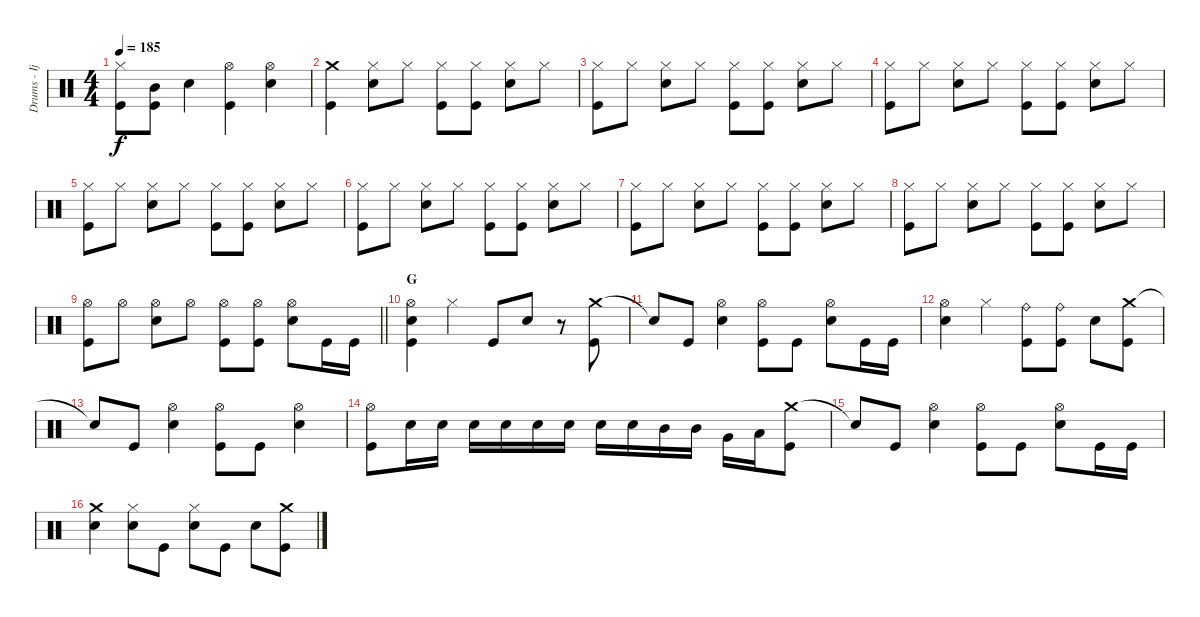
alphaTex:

\track ("Drums - Ijichi" "Drums - Ij") {instrument percussion}
\staff {score}
\articulation defaults
\ts (4 4)
\tempo 185
\clef neutral
\ks c
("Hi-Hat (closed)" "Kick (hit)").8{dy f} ("Mid Tom (hit)" "Kick (hit)").8 "Electric Snare (hit)".4 ("Hi-Hat (open)" "Kick (hit)").4 ("Hi-Hat (open)" "Electric Snare (hit)").4 |
("Crash medium (hit)" "Kick (hit)").4 ("Hi-Hat (closed)" "Electric Snare (hit)").8 "Hi-Hat (closed)".8 ("Hi-Hat (closed)" "Kick (hit)").8 ("Hi-Hat (closed)" "Kick (hit)").8 ("Hi-Hat (closed)" "Electric Snare (hit)").8 "Hi-Hat (closed)".8 |
("Hi-Hat (closed)" "Kick (hit)").8 "Hi-Hat (closed)".8 ("Hi-Hat (closed)" "Electric Snare (hit)").8 "Hi-Hat (closed)".8 ("Hi-Hat (closed)" "Kick (hit)").8 ("Hi-Hat (closed)" "Kick (hit)").8 ("Hi-Hat (closed)" "Electric Snare (hit)").8 "Hi-Hat (closed)".8 |
("Hi-Hat (closed)" "Kick (hit)").8 "Hi-Hat (closed)".8 ("Hi-Hat (closed)" "Electric Snare (hit)").8 "Hi-Hat (closed)".8 ("Hi-Hat (closed)" "Kick (hit)").8 ("Hi-Hat (closed)" "Kick (hit)").8 ("Hi-Hat (closed)" "Electric Snare (hit)").8 "Hi-Hat (closed)".8 |
("Hi-Hat (closed)" "Kick (hit)").8 "Hi-Hat (closed)".8 ("Hi-Hat (closed)" "Electric Snare (hit)").8 "Hi-Hat (closed)".8 ("Hi-Hat (closed)" "Kick (hit)").8 ("Hi-Hat (closed)" "Kick (hit)").8 ("Hi-Hat (closed)" "Electric Snare (hit)").8 "Hi-Hat (closed)".8 |
("Hi-Hat (closed)" "Kick (hit)").8 "Hi-Hat (closed)".8 ("Hi-Hat (closed)" "Electric Snare (hit)").8 "Hi-Hat (closed)".8 ("Hi-Hat (closed)" "Kick (hit)").8 ("Hi-Hat (closed)" "Kick (hit)").8 ("Hi-Hat (closed)" "Electric Snare (hit)").8 "Hi-Hat (closed)".8 |
("Hi-Hat (closed)" "Kick (hit)").8 "Hi-Hat (closed)".8 ("Hi-Hat (closed)" "Electric Snare (hit)").8 "Hi-Hat (closed)".8 ("Hi-Hat (closed)" "Kick (hit)").8 ("Hi-Hat (closed)" "Kick (hit)").8 ("Hi-Hat (closed)" "Electric Snare (hit)").8 "Hi-Hat (closed)".8 |
("Hi-Hat (closed)" "Kick (hit)").8 "Hi-Hat (closed)".8 ("Hi-Hat (closed)" "Electric Snare (hit)").8 "Hi-Hat (closed)".8 ("Hi-Hat (closed)" "Kick (hit)").8 ("Hi-Hat (closed)" "Kick (hit)").8 ("Hi-Hat (closed)" "Electric Snare (hit)").8 "Hi-Hat (closed)".8 |
\barLineRight lightlight
("Hi-Hat (open)" "Kick (hit)").8 "Hi-Hat (open)".8 ("Hi-Hat (open)" "Electric Snare (hit)").8 "Hi-Hat (open)".8 ("Hi-Hat (open)" "Kick (hit)").8 ("Hi-Hat (open)" "Kick (hit)").8 ("Hi-Hat (open)" "Electric Snare (hit)").8 "Kick (hit)".16 "Kick (hit)".16 |
\section ("" "G")
("Hi-Hat (open)" "Electric Snare (hit)" "Kick (hit)").4 "Hi-Hat (closed)".4 "Kick (hit)".8 "Electric Snare (hit)".8 r.8 ("Crash medium (hit)" "Kick (hit)").8 |
"Snare (hit)"{t}.8 "Kick (hit)".8 ("Hi-Hat (open)" "Electric Snare (hit)").4 ("Hi-Hat (open)" "Kick (hit)").8 "Kick (hit)".8 ("Hi-Hat (open)" "Electric Snare (hit)").8 "Kick (hit)".16 "Kick (hit)".16 |
("Hi-Hat (open)" "Electric Snare (hit)").4 "Hi-Hat (closed)".4 ("Ride (bell)" "Kick (hit)").8 ("Ride (bell)" "Kick (hit)").8 "Electric Snare (hit)".8 ("Crash medium (hit)" "Kick (hit)").8 |
"Snare (hit)"{t}.8 "Kick (hit)".8 ("Hi-Hat (open)" "Electric Snare (hit)").4 ("Hi-Hat (open)" "Kick (hit)").8 "Kick (hit)".8 ("Hi-Hat (open)" "Electric Snare (hit)").4 |
("Hi-Hat (open)" "Kick (hit)").8 "Electric Snare (hit)".16 "Electric Snare (hit)".16 "Electric Snare (hit)".16 "Electric Snare (hit)".16 "Electric Snare (hit)".16 "Electric Snare (hit)".16 "Electric Snare (hit)".16 "Electric Snare (hit)".16 "Mid Tom (hit)".16 "Mid Tom (hit)".16 "Very Low Tom (hit)".16 "Low Tom (hit)".16 ("Crash medium (hit)" "Kick (hit)").8 |
"Snare (hit)"{t}.8 "Kick (hit)".8 ("Hi-Hat (open)" "Electric Snare (hit)").4 ("Hi-Hat (open)" "Kick (hit)").8 "Kick (hit)".8 ("Hi-Hat (open)" "Electric Snare (hit)").8 "Kick (hit)".16 "Kick (hit)".16 |
("Crash medium (hit)" "Electric Snare (hit)").4 ("Hi-Hat (closed)" "Electric Snare (hit)").8 "Kick (hit)".8 ("Hi-Hat (closed)" "Electric Snare (hit)").8 "Kick (hit)".8 "Electric Snare (hit)".8 ("Crash medium (hit)" "Kick (hit)").8
